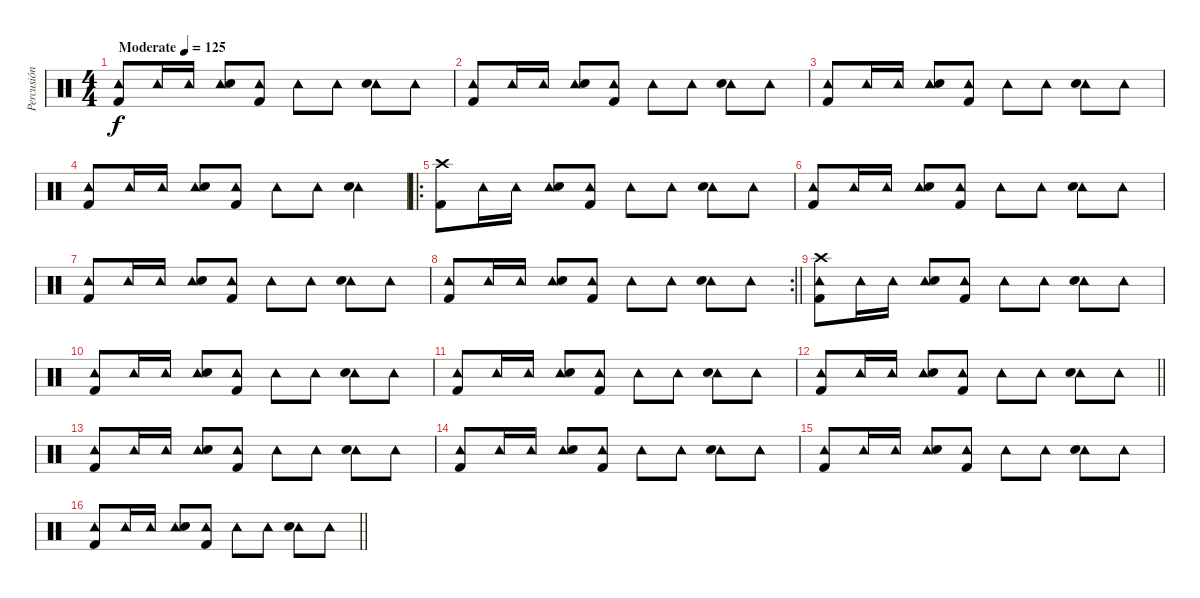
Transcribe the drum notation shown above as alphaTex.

\track ("Percusión" "Percusión") {instrument percussion}
\staff {score}
\articulation defaults
\ts (4 4)
\tempo (125 "Moderate")
\clef neutral
\ks c
("Tambourine (hit)" "Kick (hit) 2").8{dy f} "Tambourine (hit)".16 "Tambourine (hit)".16 ("Tambourine (hit)" "Electric Snare (hit)").8 ("Tambourine (hit)" "Kick (hit) 2").8 "Tambourine (hit)".8 "Tambourine (hit)".8 ("Tambourine (hit)" "Electric Snare (hit)").8 "Tambourine (hit)".8 |
("Tambourine (hit)" "Kick (hit) 2").8 "Tambourine (hit)".16 "Tambourine (hit)".16 ("Tambourine (hit)" "Electric Snare (hit)").8 ("Tambourine (hit)" "Kick (hit) 2").8 "Tambourine (hit)".8 "Tambourine (hit)".8 ("Tambourine (hit)" "Electric Snare (hit)").8 "Tambourine (hit)".8 |
("Tambourine (hit)" "Kick (hit) 2").8 "Tambourine (hit)".16 "Tambourine (hit)".16 ("Tambourine (hit)" "Electric Snare (hit)").8 ("Tambourine (hit)" "Kick (hit) 2").8 "Tambourine (hit)".8 "Tambourine (hit)".8 ("Tambourine (hit)" "Electric Snare (hit)").8 "Tambourine (hit)".8 |
("Tambourine (hit)" "Kick (hit) 2").8 "Tambourine (hit)".16 "Tambourine (hit)".16 ("Tambourine (hit)" "Electric Snare (hit)").8 ("Tambourine (hit)" "Kick (hit) 2").8 "Tambourine (hit)".8 "Tambourine (hit)".8 ("Tambourine (hit)" "Electric Snare (hit)").4 |
\ro
("Crash high (hit)" "Kick (hit) 2").8 "Tambourine (hit)".16 "Tambourine (hit)".16 ("Tambourine (hit)" "Electric Snare (hit)").8 ("Tambourine (hit)" "Kick (hit) 2").8 "Tambourine (hit)".8 "Tambourine (hit)".8 ("Tambourine (hit)" "Electric Snare (hit)").8 "Tambourine (hit)".8 |
("Tambourine (hit)" "Kick (hit) 2").8 "Tambourine (hit)".16 "Tambourine (hit)".16 ("Tambourine (hit)" "Electric Snare (hit)").8 ("Tambourine (hit)" "Kick (hit) 2").8 "Tambourine (hit)".8 "Tambourine (hit)".8 ("Tambourine (hit)" "Electric Snare (hit)").8 "Tambourine (hit)".8 |
("Tambourine (hit)" "Kick (hit) 2").8 "Tambourine (hit)".16 "Tambourine (hit)".16 ("Tambourine (hit)" "Electric Snare (hit)").8 ("Tambourine (hit)" "Kick (hit) 2").8 "Tambourine (hit)".8 "Tambourine (hit)".8 ("Tambourine (hit)" "Electric Snare (hit)").8 "Tambourine (hit)".8 |
\rc 2
\barLineRight lightlight
("Tambourine (hit)" "Kick (hit) 2").8 "Tambourine (hit)".16 "Tambourine (hit)".16 ("Tambourine (hit)" "Electric Snare (hit)").8 ("Tambourine (hit)" "Kick (hit) 2").8 "Tambourine (hit)".8 "Tambourine (hit)".8 ("Tambourine (hit)" "Electric Snare (hit)").8 "Tambourine (hit)".8 |
("Tambourine (hit)" "Kick (hit) 2" "Crash high (hit)").8 "Tambourine (hit)".16 "Tambourine (hit)".16 ("Tambourine (hit)" "Electric Snare (hit)").8 ("Tambourine (hit)" "Kick (hit) 2").8 "Tambourine (hit)".8 "Tambourine (hit)".8 ("Tambourine (hit)" "Electric Snare (hit)").8 "Tambourine (hit)".8 |
("Tambourine (hit)" "Kick (hit) 2").8 "Tambourine (hit)".16 "Tambourine (hit)".16 ("Tambourine (hit)" "Electric Snare (hit)").8 ("Tambourine (hit)" "Kick (hit) 2").8 "Tambourine (hit)".8 "Tambourine (hit)".8 ("Tambourine (hit)" "Electric Snare (hit)").8 "Tambourine (hit)".8 |
("Tambourine (hit)" "Kick (hit) 2").8 "Tambourine (hit)".16 "Tambourine (hit)".16 ("Tambourine (hit)" "Electric Snare (hit)").8 ("Tambourine (hit)" "Kick (hit) 2").8 "Tambourine (hit)".8 "Tambourine (hit)".8 ("Tambourine (hit)" "Electric Snare (hit)").8 "Tambourine (hit)".8 |
\barLineRight lightlight
("Tambourine (hit)" "Kick (hit) 2").8 "Tambourine (hit)".16 "Tambourine (hit)".16 ("Tambourine (hit)" "Electric Snare (hit)").8 ("Tambourine (hit)" "Kick (hit) 2").8 "Tambourine (hit)".8 "Tambourine (hit)".8 ("Tambourine (hit)" "Electric Snare (hit)").8 "Tambourine (hit)".8 |
("Tambourine (hit)" "Kick (hit) 2").8 "Tambourine (hit)".16 "Tambourine (hit)".16 ("Tambourine (hit)" "Electric Snare (hit)").8 ("Tambourine (hit)" "Kick (hit) 2").8 "Tambourine (hit)".8 "Tambourine (hit)".8 ("Tambourine (hit)" "Electric Snare (hit)").8 "Tambourine (hit)".8 |
("Tambourine (hit)" "Kick (hit) 2").8 "Tambourine (hit)".16 "Tambourine (hit)".16 ("Tambourine (hit)" "Electric Snare (hit)").8 ("Tambourine (hit)" "Kick (hit) 2").8 "Tambourine (hit)".8 "Tambourine (hit)".8 ("Tambourine (hit)" "Electric Snare (hit)").8 "Tambourine (hit)".8 |
("Tambourine (hit)" "Kick (hit) 2").8 "Tambourine (hit)".16 "Tambourine (hit)".16 ("Tambourine (hit)" "Electric Snare (hit)").8 ("Tambourine (hit)" "Kick (hit) 2").8 "Tambourine (hit)".8 "Tambourine (hit)".8 ("Tambourine (hit)" "Electric Snare (hit)").8 "Tambourine (hit)".8 |
\barLineRight lightlight
("Tambourine (hit)" "Kick (hit) 2").8 "Tambourine (hit)".16 "Tambourine (hit)".16 ("Tambourine (hit)" "Electric Snare (hit)").8 ("Tambourine (hit)" "Kick (hit) 2").8 "Tambourine (hit)".8 "Tambourine (hit)".8 ("Tambourine (hit)" "Electric Snare (hit)").8 "Tambourine (hit)".8
